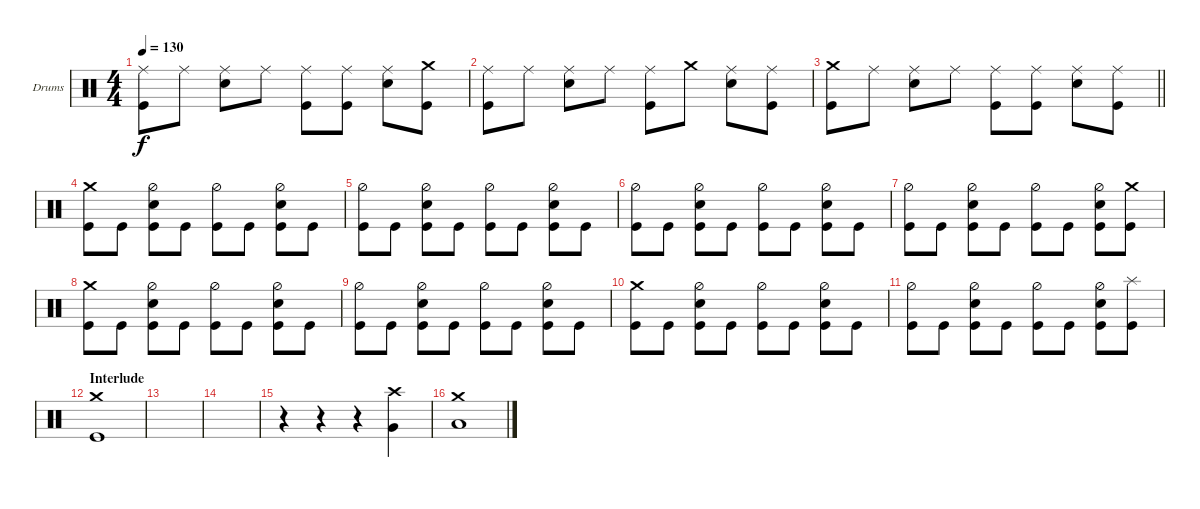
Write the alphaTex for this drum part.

\defaultSystemsLayout 4
\bracketExtendMode groupsimilarinstruments
\firstSystemTrackNameOrientation horizontal
\otherSystemsTrackNameOrientation horizontal
\track ("Drums" "Drums") {instrument percussion}
\staff {score}
\articulation defaults
\ts (4 4)
\tempo 130
\clef neutral
\ks aminor
("Kick (hit)" "Ride (middle)").8{dy f} "Ride (middle)".8 ("Snare (hit) 2" "Ride (middle)").8 "Ride (middle)".8 ("Kick (hit)" "Ride (middle)").8 ("Kick (hit)" "Ride (middle)").8 ("Snare (hit) 2" "Ride (middle)").8 ("Kick (hit)" "Crash medium (hit)").8 |
("Kick (hit)" "Ride (middle)").8 "Ride (middle)".8 ("Snare (hit) 2" "Ride (middle)").8 "Ride (middle)".8 ("Kick (hit)" "Ride (middle)").8 "Crash medium (hit)".8 ("Snare (hit) 2" "Ride (middle)").8 ("Kick (hit)" "Ride (middle)").8 |
\barLineRight lightlight
("Kick (hit)" "Crash medium (hit)").8 "Ride (middle)".8 ("Snare (hit) 2" "Ride (middle)").8 "Ride (middle)".8 ("Kick (hit)" "Ride (middle)").8 ("Kick (hit)" "Ride (middle)").8 ("Snare (hit) 2" "Ride (middle)").8 ("Kick (hit)" "Ride (middle)").8 |
("Kick (hit)" "Crash medium (hit)").8 "Kick (hit)".8 ("Snare (hit) 2" "Hi-Hat (half)" "Kick (hit)").8 "Kick (hit)".8 ("Hi-Hat (half)" "Kick (hit)").8 "Kick (hit)".8 ("Snare (hit) 2" "Hi-Hat (half)" "Kick (hit)").8 "Kick (hit)".8 |
("Kick (hit)" "Hi-Hat (half)").8 "Kick (hit)".8 ("Snare (hit) 2" "Hi-Hat (half)" "Kick (hit)").8 "Kick (hit)".8 ("Kick (hit)" "Hi-Hat (half)").8 "Kick (hit)".8 ("Snare (hit) 2" "Hi-Hat (half)" "Kick (hit)").8 "Kick (hit)".8 |
("Kick (hit)" "Hi-Hat (half)").8 "Kick (hit)".8 ("Snare (hit) 2" "Hi-Hat (half)" "Kick (hit)").8 "Kick (hit)".8 ("Hi-Hat (half)" "Kick (hit)").8 "Kick (hit)".8 ("Snare (hit) 2" "Hi-Hat (half)" "Kick (hit)").8 "Kick (hit)".8 |
("Kick (hit)" "Hi-Hat (half)").8 "Kick (hit)".8 ("Snare (hit) 2" "Hi-Hat (half)" "Kick (hit)").8 "Kick (hit)".8 ("Kick (hit)" "Hi-Hat (half)").8 "Kick (hit)".8 ("Snare (hit) 2" "Hi-Hat (half)" "Kick (hit)").8 ("Kick (hit)" "Crash medium (hit)").8 |
("Kick (hit)" "Crash medium (hit)").8 "Kick (hit)".8 ("Snare (hit) 2" "Hi-Hat (half)" "Kick (hit)").8 "Kick (hit)".8 ("Hi-Hat (half)" "Kick (hit)").8 "Kick (hit)".8 ("Snare (hit) 2" "Hi-Hat (half)" "Kick (hit)").8 "Kick (hit)".8 |
("Kick (hit)" "Hi-Hat (half)").8 "Kick (hit)".8 ("Snare (hit) 2" "Hi-Hat (half)" "Kick (hit)").8 "Kick (hit)".8 ("Kick (hit)" "Hi-Hat (half)").8 "Kick (hit)".8 ("Snare (hit) 2" "Hi-Hat (half)" "Kick (hit)").8 "Kick (hit)".8 |
("Kick (hit)" "Crash medium (hit)").8 "Kick (hit)".8 ("Snare (hit) 2" "Hi-Hat (half)" "Kick (hit)").8 "Kick (hit)".8 ("Hi-Hat (half)" "Kick (hit)").8 "Kick (hit)".8 ("Snare (hit) 2" "Hi-Hat (half)" "Kick (hit)").8 "Kick (hit)".8 |
("Kick (hit)" "Hi-Hat (half)").8 "Kick (hit)".8 ("Snare (hit) 2" "Hi-Hat (half)" "Kick (hit)").8 "Kick (hit)".8 ("Kick (hit)" "Hi-Hat (half)").8 "Kick (hit)".8 ("Snare (hit) 2" "Hi-Hat (half)" "Kick (hit)").8 ("Kick (hit)" "Splash (hit)").8 |
\section ("" "Interlude")
("Kick (hit)" "Crash medium (hit)").1 |
|
|
r.4 r.4 r.4 ("Very Low Tom (hit)" "Crash high (hit)").4 |
("Crash medium (hit)" "Low Tom (hit)").1
